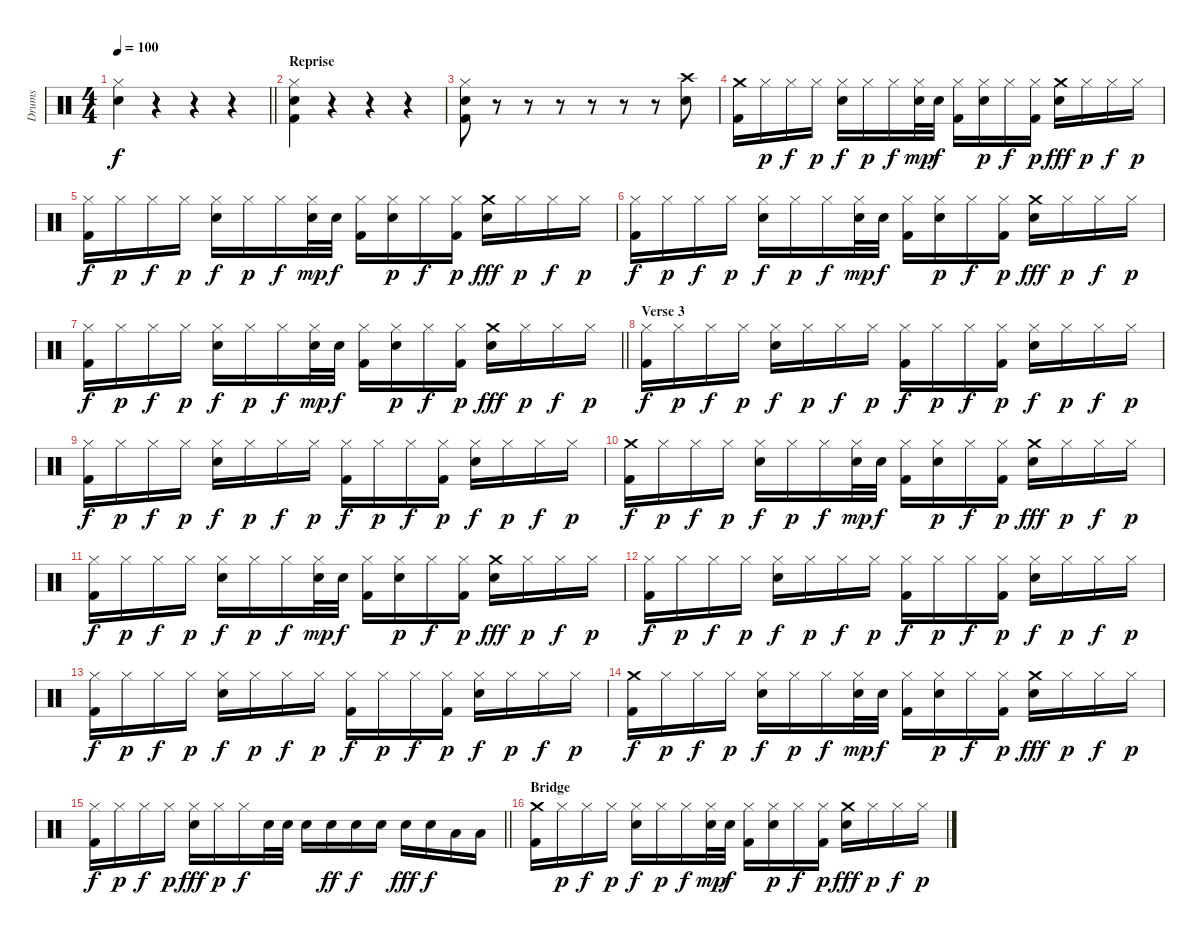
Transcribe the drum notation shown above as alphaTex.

\track ("Drums" "Drums") {instrument percussion}
\staff {score}
\articulation defaults
\ts (4 4)
\tempo 100
\clef neutral
\barLineRight lightlight
\ks c
("Hi-Hat (closed)" "Electric Snare (hit)").4{dy f} r.4 r.4 r.4 |
\section ("" "Reprise")
("Hi-Hat (closed)" "Electric Snare (hit)" "Kick (hit) 2").4 r.4 r.4 r.4 |
("Hi-Hat (closed)" "Electric Snare (hit)" "Kick (hit) 2").8 r.8 r.8 r.8 r.8 r.8 r.8 ("Crash high (hit)" "Snare (hit) 2").8 |
("Crash medium (hit)" "Kick (hit) 2").16 "Hi-Hat (closed)".16{dy p} "Hi-Hat (closed)".16{dy f} "Hi-Hat (closed)".16{dy p} ("Hi-Hat (closed)" "Electric Snare (hit)").16{dy f} "Hi-Hat (closed)".16{dy p} "Hi-Hat (closed)".16{dy f} ("Hi-Hat (closed)" "Electric Snare (hit)").32{dy mp} "Electric Snare (hit)".32{dy f} ("Hi-Hat (closed)" "Kick (hit) 2").16 ("Hi-Hat (closed)" "Electric Snare (hit)").16{dy p} "Hi-Hat (closed)".16{dy f} ("Hi-Hat (closed)" "Kick (hit) 2").16{dy p} ("Crash medium (hit)" "Electric Snare (hit)").16{dy fff} "Hi-Hat (closed)".16{dy p} "Hi-Hat (closed)".16{dy f} "Hi-Hat (closed)".16{dy p} |
("Hi-Hat (closed)" "Kick (hit) 2").16{dy f} "Hi-Hat (closed)".16{dy p} "Hi-Hat (closed)".16{dy f} "Hi-Hat (closed)".16{dy p} ("Hi-Hat (closed)" "Electric Snare (hit)").16{dy f} "Hi-Hat (closed)".16{dy p} "Hi-Hat (closed)".16{dy f} ("Hi-Hat (closed)" "Electric Snare (hit)").32{dy mp} "Electric Snare (hit)".32{dy f} ("Hi-Hat (closed)" "Kick (hit) 2").16 ("Hi-Hat (closed)" "Electric Snare (hit)").16{dy p} "Hi-Hat (closed)".16{dy f} ("Hi-Hat (closed)" "Kick (hit) 2").16{dy p} ("Crash medium (hit)" "Electric Snare (hit)").16{dy fff} "Hi-Hat (closed)".16{dy p} "Hi-Hat (closed)".16{dy f} "Hi-Hat (closed)".16{dy p} |
("Hi-Hat (closed)" "Kick (hit) 2").16{dy f} "Hi-Hat (closed)".16{dy p} "Hi-Hat (closed)".16{dy f} "Hi-Hat (closed)".16{dy p} ("Hi-Hat (closed)" "Electric Snare (hit)").16{dy f} "Hi-Hat (closed)".16{dy p} "Hi-Hat (closed)".16{dy f} ("Hi-Hat (closed)" "Electric Snare (hit)").32{dy mp} "Electric Snare (hit)".32{dy f} ("Hi-Hat (closed)" "Kick (hit) 2").16 ("Hi-Hat (closed)" "Electric Snare (hit)").16{dy p} "Hi-Hat (closed)".16{dy f} ("Hi-Hat (closed)" "Kick (hit) 2").16{dy p} ("Crash medium (hit)" "Electric Snare (hit)").16{dy fff} "Hi-Hat (closed)".16{dy p} "Hi-Hat (closed)".16{dy f} "Hi-Hat (closed)".16{dy p} |
\barLineRight lightlight
("Hi-Hat (closed)" "Kick (hit) 2").16{dy f} "Hi-Hat (closed)".16{dy p} "Hi-Hat (closed)".16{dy f} "Hi-Hat (closed)".16{dy p} ("Hi-Hat (closed)" "Electric Snare (hit)").16{dy f} "Hi-Hat (closed)".16{dy p} "Hi-Hat (closed)".16{dy f} ("Hi-Hat (closed)" "Electric Snare (hit)").32{dy mp} "Electric Snare (hit)".32{dy f} ("Hi-Hat (closed)" "Kick (hit) 2").16 ("Hi-Hat (closed)" "Electric Snare (hit)").16{dy p} "Hi-Hat (closed)".16{dy f} ("Hi-Hat (closed)" "Kick (hit) 2").16{dy p} ("Crash medium (hit)" "Electric Snare (hit)").16{dy fff} "Hi-Hat (closed)".16{dy p} "Hi-Hat (closed)".16{dy f} "Hi-Hat (closed)".16{dy p} |
\section ("" "Verse 3")
("Hi-Hat (closed)" "Kick (hit) 2").16{dy f} "Hi-Hat (closed)".16{dy p} "Hi-Hat (closed)".16{dy f} "Hi-Hat (closed)".16{dy p} ("Hi-Hat (closed)" "Electric Snare (hit)").16{dy f} "Hi-Hat (closed)".16{dy p} "Hi-Hat (closed)".16{dy f} "Hi-Hat (closed)".16{dy p} ("Hi-Hat (closed)" "Kick (hit) 2").16{dy f} "Hi-Hat (closed)".16{dy p} "Hi-Hat (closed)".16{dy f} ("Hi-Hat (closed)" "Kick (hit) 2").16{dy p} ("Hi-Hat (closed)" "Electric Snare (hit)").16{dy f} "Hi-Hat (closed)".16{dy p} "Hi-Hat (closed)".16{dy f} "Hi-Hat (closed)".16{dy p} |
("Hi-Hat (closed)" "Kick (hit) 2").16{dy f} "Hi-Hat (closed)".16{dy p} "Hi-Hat (closed)".16{dy f} "Hi-Hat (closed)".16{dy p} ("Hi-Hat (closed)" "Electric Snare (hit)").16{dy f} "Hi-Hat (closed)".16{dy p} "Hi-Hat (closed)".16{dy f} "Hi-Hat (closed)".16{dy p} ("Hi-Hat (closed)" "Kick (hit) 2").16{dy f} "Hi-Hat (closed)".16{dy p} "Hi-Hat (closed)".16{dy f} ("Hi-Hat (closed)" "Kick (hit) 2").16{dy p} ("Hi-Hat (closed)" "Electric Snare (hit)").16{dy f} "Hi-Hat (closed)".16{dy p} "Hi-Hat (closed)".16{dy f} "Hi-Hat (closed)".16{dy p} |
("Crash medium (hit)" "Kick (hit) 2").16{dy f} "Hi-Hat (closed)".16{dy p} "Hi-Hat (closed)".16{dy f} "Hi-Hat (closed)".16{dy p} ("Hi-Hat (closed)" "Electric Snare (hit)").16{dy f} "Hi-Hat (closed)".16{dy p} "Hi-Hat (closed)".16{dy f} ("Hi-Hat (closed)" "Electric Snare (hit)").32{dy mp} "Electric Snare (hit)".32{dy f} ("Hi-Hat (closed)" "Kick (hit) 2").16 ("Hi-Hat (closed)" "Electric Snare (hit)").16{dy p} "Hi-Hat (closed)".16{dy f} ("Hi-Hat (closed)" "Kick (hit) 2").16{dy p} ("Crash medium (hit)" "Electric Snare (hit)").16{dy fff} "Hi-Hat (closed)".16{dy p} "Hi-Hat (closed)".16{dy f} "Hi-Hat (closed)".16{dy p} |
("Hi-Hat (closed)" "Kick (hit) 2").16{dy f} "Hi-Hat (closed)".16{dy p} "Hi-Hat (closed)".16{dy f} "Hi-Hat (closed)".16{dy p} ("Hi-Hat (closed)" "Electric Snare (hit)").16{dy f} "Hi-Hat (closed)".16{dy p} "Hi-Hat (closed)".16{dy f} ("Hi-Hat (closed)" "Electric Snare (hit)").32{dy mp} "Electric Snare (hit)".32{dy f} ("Hi-Hat (closed)" "Kick (hit) 2").16 ("Hi-Hat (closed)" "Electric Snare (hit)").16{dy p} "Hi-Hat (closed)".16{dy f} ("Hi-Hat (closed)" "Kick (hit) 2").16{dy p} ("Crash medium (hit)" "Electric Snare (hit)").16{dy fff} "Hi-Hat (closed)".16{dy p} "Hi-Hat (closed)".16{dy f} "Hi-Hat (closed)".16{dy p} |
("Hi-Hat (closed)" "Kick (hit) 2").16{dy f} "Hi-Hat (closed)".16{dy p} "Hi-Hat (closed)".16{dy f} "Hi-Hat (closed)".16{dy p} ("Hi-Hat (closed)" "Electric Snare (hit)").16{dy f} "Hi-Hat (closed)".16{dy p} "Hi-Hat (closed)".16{dy f} "Hi-Hat (closed)".16{dy p} ("Hi-Hat (closed)" "Kick (hit) 2").16{dy f} "Hi-Hat (closed)".16{dy p} "Hi-Hat (closed)".16{dy f} ("Hi-Hat (closed)" "Kick (hit) 2").16{dy p} ("Hi-Hat (closed)" "Electric Snare (hit)").16{dy f} "Hi-Hat (closed)".16{dy p} "Hi-Hat (closed)".16{dy f} "Hi-Hat (closed)".16{dy p} |
("Hi-Hat (closed)" "Kick (hit) 2").16{dy f} "Hi-Hat (closed)".16{dy p} "Hi-Hat (closed)".16{dy f} "Hi-Hat (closed)".16{dy p} ("Hi-Hat (closed)" "Electric Snare (hit)").16{dy f} "Hi-Hat (closed)".16{dy p} "Hi-Hat (closed)".16{dy f} "Hi-Hat (closed)".16{dy p} ("Hi-Hat (closed)" "Kick (hit) 2").16{dy f} "Hi-Hat (closed)".16{dy p} "Hi-Hat (closed)".16{dy f} ("Hi-Hat (closed)" "Kick (hit) 2").16{dy p} ("Hi-Hat (closed)" "Electric Snare (hit)").16{dy f} "Hi-Hat (closed)".16{dy p} "Hi-Hat (closed)".16{dy f} "Hi-Hat (closed)".16{dy p} |
("Crash medium (hit)" "Kick (hit) 2").16{dy f} "Hi-Hat (closed)".16{dy p} "Hi-Hat (closed)".16{dy f} "Hi-Hat (closed)".16{dy p} ("Hi-Hat (closed)" "Electric Snare (hit)").16{dy f} "Hi-Hat (closed)".16{dy p} "Hi-Hat (closed)".16{dy f} ("Hi-Hat (closed)" "Electric Snare (hit)").32{dy mp} "Electric Snare (hit)".32{dy f} ("Hi-Hat (closed)" "Kick (hit) 2").16 ("Hi-Hat (closed)" "Electric Snare (hit)").16{dy p} "Hi-Hat (closed)".16{dy f} ("Hi-Hat (closed)" "Kick (hit) 2").16{dy p} ("Crash medium (hit)" "Electric Snare (hit)").16{dy fff} "Hi-Hat (closed)".16{dy p} "Hi-Hat (closed)".16{dy f} "Hi-Hat (closed)".16{dy p} |
\barLineRight lightlight
("Hi-Hat (closed)" "Kick (hit) 2").16{dy f} "Hi-Hat (closed)".16{dy p} "Hi-Hat (closed)".16{dy f} "Hi-Hat (closed)".16{dy p} ("Hi-Hat (closed)" "Electric Snare (hit)").16{dy fff} "Hi-Hat (closed)".16{dy p} "Hi-Hat (closed)".16{dy f} "Snare (hit) 2".32 "Snare (hit) 2".32 "Electric Snare (hit)".16 "Electric Snare (hit)".16{dy ff} "Electric Snare (hit)".16{dy f} "Electric Snare (hit)".16 "Electric Snare (hit)".16{dy fff} "Electric Snare (hit)".16{dy f} "Low Tom (hit)".16 "Low Tom (hit)".16 |
\section ("" "Bridge")
("Crash medium (hit)" "Kick (hit) 2").16 "Hi-Hat (closed)".16{dy p} "Hi-Hat (closed)".16{dy f} "Hi-Hat (closed)".16{dy p} ("Hi-Hat (closed)" "Electric Snare (hit)").16{dy f} "Hi-Hat (closed)".16{dy p} "Hi-Hat (closed)".16{dy f} ("Hi-Hat (closed)" "Electric Snare (hit)").32{dy mp} "Electric Snare (hit)".32{dy f} ("Hi-Hat (closed)" "Kick (hit) 2").16 ("Hi-Hat (closed)" "Electric Snare (hit)").16{dy p} "Hi-Hat (closed)".16{dy f} ("Hi-Hat (closed)" "Kick (hit) 2").16{dy p} ("Crash medium (hit)" "Electric Snare (hit)").16{dy fff} "Hi-Hat (closed)".16{dy p} "Hi-Hat (closed)".16{dy f} "Hi-Hat (closed)".16{dy p}
